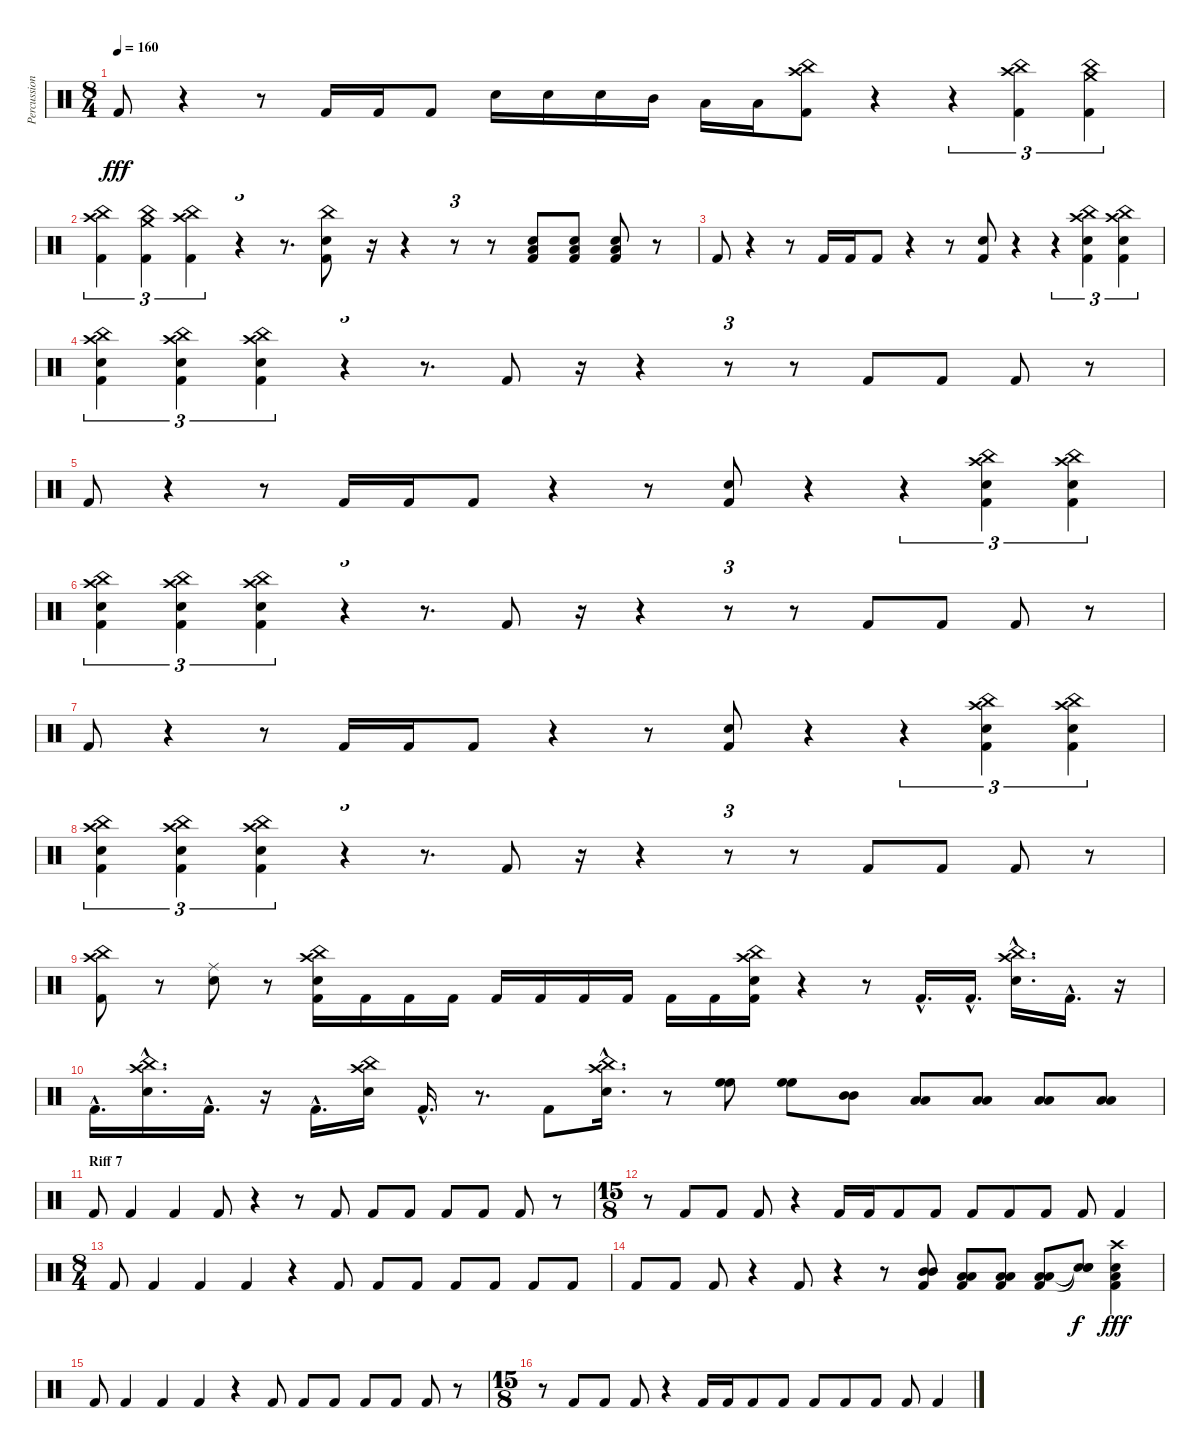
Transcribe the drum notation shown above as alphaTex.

\track ("Percussion" "Percussion") {instrument percussion}
\staff {score}
\articulation defaults
\ts (8 4)
\tempo 160
\clef neutral
\ks c "Kick (hit) 2".8{dy fff}
r.4 r.8 "Kick (hit) 2".16 "Kick (hit) 2".16 "Kick (hit) 2".8 "Electric Snare (hit)".16 "Electric Snare (hit)".16 "Electric Snare (hit)".16 "Mid Tom (hit)".16 "Low Tom (hit)".16 "Low Floor Tom (hit)".16 ("China (hit)" "Crash high (hit)" "Kick (hit) 2").8 r.4 r.4{tu (3 2)} ("China (hit)" "Crash high (hit)" "Kick (hit) 2").4{tu (3 2)} ("China (hit)" "Crash medium (hit)" "Kick (hit) 2").4{tu (3 2)} |
("China (hit)" "Crash high (hit)" "Kick (hit) 2").4{tu (3 2)} ("China (hit)" "Crash medium (hit)" "Kick (hit) 2").4{tu (3 2)} ("China (hit)" "Crash high (hit)" "Kick (hit) 2").4{tu (3 2)} r.4{tu (3 2)} r.8{d} ("China (hit)" "Electric Snare (hit)" "Kick (hit) 2").8 r.16 r.4 r.8{tu (3 2)} r.8 ("Electric Snare (hit)" "Low Floor Tom (hit)" "Kick (hit) 2").8 ("Electric Snare (hit)" "Low Floor Tom (hit)" "Kick (hit) 2").8 ("Electric Snare (hit)" "Low Floor Tom (hit)" "Kick (hit) 2").8 r.8 |
"Kick (hit) 2".8 r.4 r.8 "Kick (hit) 2".16 "Kick (hit) 2".16 "Kick (hit) 2".8 r.4 r.8 ("Electric Snare (hit)" "Kick (hit) 2").8 r.4 r.4{tu (3 2)} ("China (hit)" "Crash high (hit)" "Electric Snare (hit)" "Kick (hit) 2").4{tu (3 2)} ("China (hit)" "Crash high (hit)" "Electric Snare (hit)" "Kick (hit) 2").4{tu (3 2)} |
("China (hit)" "Crash high (hit)" "Electric Snare (hit)" "Kick (hit) 2").4{tu (3 2)} ("China (hit)" "Crash high (hit)" "Electric Snare (hit)" "Kick (hit) 2").4{tu (3 2)} ("China (hit)" "Crash high (hit)" "Electric Snare (hit)" "Kick (hit) 2").4{tu (3 2)} r.4{tu (3 2)} r.8{d} "Kick (hit) 2".8 r.16 r.4 r.8{tu (3 2)} r.8 "Kick (hit) 2".8 "Kick (hit) 2".8 "Kick (hit) 2".8 r.8 |
"Kick (hit) 2".8 r.4 r.8 "Kick (hit) 2".16 "Kick (hit) 2".16 "Kick (hit) 2".8 r.4 r.8 ("Electric Snare (hit)" "Kick (hit) 2").8 r.4 r.4{tu (3 2)} ("China (hit)" "Crash high (hit)" "Electric Snare (hit)" "Kick (hit) 2").4{tu (3 2)} ("China (hit)" "Crash high (hit)" "Electric Snare (hit)" "Kick (hit) 2").4{tu (3 2)} |
("China (hit)" "Crash high (hit)" "Electric Snare (hit)" "Kick (hit) 2").4{tu (3 2)} ("China (hit)" "Crash high (hit)" "Electric Snare (hit)" "Kick (hit) 2").4{tu (3 2)} ("China (hit)" "Crash high (hit)" "Electric Snare (hit)" "Kick (hit) 2").4{tu (3 2)} r.4{tu (3 2)} r.8{d} "Kick (hit) 2".8 r.16 r.4 r.8{tu (3 2)} r.8 "Kick (hit) 2".8 "Kick (hit) 2".8 "Kick (hit) 2".8 r.8 |
"Kick (hit) 2".8 r.4 r.8 "Kick (hit) 2".16 "Kick (hit) 2".16 "Kick (hit) 2".8 r.4 r.8 ("Electric Snare (hit)" "Kick (hit) 2").8 r.4 r.4{tu (3 2)} ("China (hit)" "Crash high (hit)" "Electric Snare (hit)" "Kick (hit) 2").4{tu (3 2)} ("China (hit)" "Crash high (hit)" "Electric Snare (hit)" "Kick (hit) 2").4{tu (3 2)} |
("China (hit)" "Crash high (hit)" "Electric Snare (hit)" "Kick (hit) 2").4{tu (3 2)} ("China (hit)" "Crash high (hit)" "Electric Snare (hit)" "Kick (hit) 2").4{tu (3 2)} ("China (hit)" "Crash high (hit)" "Electric Snare (hit)" "Kick (hit) 2").4{tu (3 2)} r.4{tu (3 2)} r.8{d} "Kick (hit) 2".8 r.16 r.4 r.8{tu (3 2)} r.8 "Kick (hit) 2".8 "Kick (hit) 2".8 "Kick (hit) 2".8 r.8 |
("China (hit)" "Crash high (hit)" "Kick (hit) 2").8 r.8 ("Ride (middle)" "Electric Snare (hit)").8 r.8 ("China (hit)" "Crash high (hit)" "Electric Snare (hit)" "Kick (hit) 2").16 "Kick (hit) 2".16 "Kick (hit) 2".16 "Kick (hit) 2".16 "Kick (hit) 2".16 "Kick (hit) 2".16 "Kick (hit) 2".16 "Kick (hit) 2".16 "Kick (hit) 2".16 "Kick (hit) 2".16 ("China (hit)" "Crash high (hit)" "Electric Snare (hit)" "Kick (hit) 2").16 r.4 r.8 "Kick (hit) 2"{hac}.16{d} "Kick (hit) 2"{hac}.16{d} ("China (hit)"{hac} "Crash high (hit)"{hac} "Electric Snare (hit)"{hac}).16{d} "Kick (hit) 2"{hac}.16{d} r.16 |
"Kick (hit) 2"{hac}.16{d} ("China (hit)"{hac} "Crash high (hit)"{hac} "Electric Snare (hit)"{hac}).16{d} "Kick (hit) 2"{hac}.16{d} r.16 "Kick (hit) 2"{hac}.16{d} ("China (hit)" "Crash high (hit)" "Electric Snare (hit)").16 "Kick (hit) 2"{hac}.16{d} r.8{d} "Kick (hit) 2".8 ("China (hit)"{hac} "Crash high (hit)"{hac} "Electric Snare (hit)"{hac}).16{d} r.8 ("High Floor Tom (hit)" "High Floor Tom (hit)").8 ("High Floor Tom (hit)" "High Floor Tom (hit)").8 ("Mid Tom (hit)" "Mid Tom (hit)").8 ("Low Tom (hit)" "Low Tom (hit)").8 ("Low Tom (hit)" "Low Tom (hit)").8 ("Low Floor Tom (hit)" "Low Floor Tom (hit)").8 ("Low Floor Tom (hit)" "Low Floor Tom (hit)").8 |
\section ("" "Riff 7")
"Kick (hit) 2".8 "Kick (hit) 2".4 "Kick (hit) 2".4 "Kick (hit) 2".8 r.4 r.8 "Kick (hit) 2".8 "Kick (hit) 2".8 "Kick (hit) 2".8 "Kick (hit) 2".8 "Kick (hit) 2".8 "Kick (hit) 2".8 r.8 |
\ts (15 8)
r.8 "Kick (hit) 2".8 "Kick (hit) 2".8 "Kick (hit) 2".8 r.4 "Kick (hit) 2".16 "Kick (hit) 2".16 "Kick (hit) 2".8 "Kick (hit) 2".8 "Kick (hit) 2".8 "Kick (hit) 2".8 "Kick (hit) 2".8 "Kick (hit) 2".8 "Kick (hit) 2".4 |
\ts (8 4)
"Kick (hit) 2".8 "Kick (hit) 2".4 "Kick (hit) 2".4 "Kick (hit) 2".4 r.4 "Kick (hit) 2".8 "Kick (hit) 2".8 "Kick (hit) 2".8 "Kick (hit) 2".8 "Kick (hit) 2".8 "Kick (hit) 2".8 "Kick (hit) 2".8 |
"Kick (hit) 2".8 "Kick (hit) 2".8 "Kick (hit) 2".8 r.4 "Kick (hit) 2".8 r.4 r.8 ("Mid Tom (hit)" "Mid Tom (hit)" "Kick (hit) 2").8 ("Low Tom (hit)" "Low Tom (hit)" "Kick (hit) 2").8 ("Low Tom (hit)" "Low Tom (hit)" "Kick (hit) 2").8 ("Low Floor Tom (hit)" "Low Floor Tom (hit)" "Kick (hit) 2").8 ("Snare (hit)"{t} "Snare (hit)"{t} "Snare (hit)"{t}).8{dy f} ("Crash high (hit)" "Electric Snare (hit)" "Low Floor Tom (hit)" "Kick (hit) 2").4{dy fff} |
"Kick (hit) 2".8 "Kick (hit) 2".4 "Kick (hit) 2".4 "Kick (hit) 2".4 r.4 "Kick (hit) 2".8 "Kick (hit) 2".8 "Kick (hit) 2".8 "Kick (hit) 2".8 "Kick (hit) 2".8 "Kick (hit) 2".8 r.8 |
\ts (15 8)
r.8 "Kick (hit) 2".8 "Kick (hit) 2".8 "Kick (hit) 2".8 r.4 "Kick (hit) 2".16 "Kick (hit) 2".16 "Kick (hit) 2".8 "Kick (hit) 2".8 "Kick (hit) 2".8 "Kick (hit) 2".8 "Kick (hit) 2".8 "Kick (hit) 2".8 "Kick (hit) 2".4
